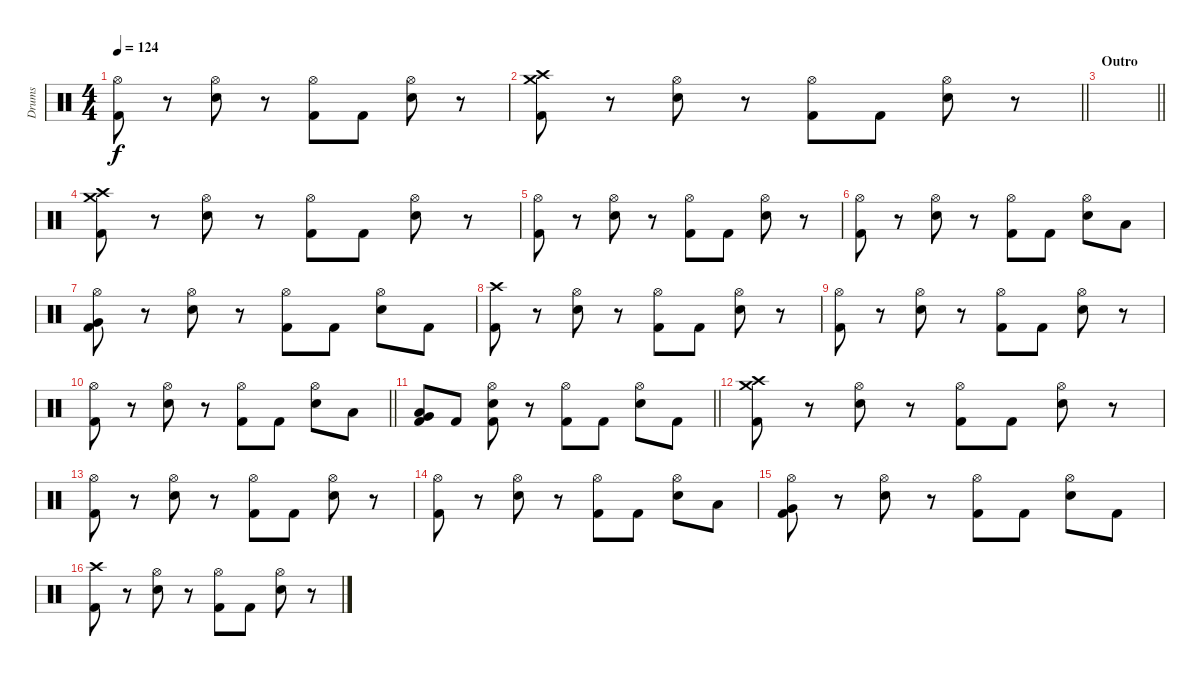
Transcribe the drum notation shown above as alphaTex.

\track ("Drums" "Drums") {instrument percussion}
\staff {score}
\articulation defaults
\ts (4 4)
\tempo 124
\clef neutral
\ks c
("Hi-Hat (open)" "Kick (hit) 2").8{dy f} r.8 ("Hi-Hat (open)" "Electric Snare (hit)").8 r.8 ("Hi-Hat (open)" "Kick (hit) 2").8 "Kick (hit) 2".8 ("Hi-Hat (open)" "Electric Snare (hit)").8 r.8 |
\barLineRight lightlight
("Crash medium (hit)" "Crash high (hit)" "Kick (hit) 2").8 r.8 ("Hi-Hat (open)" "Electric Snare (hit)").8 r.8 ("Hi-Hat (open)" "Kick (hit) 2").8 "Kick (hit) 2".8 ("Hi-Hat (open)" "Electric Snare (hit)").8 r.8 |
\section ("" "Outro")
\barLineRight lightlight
|
("Crash medium (hit)" "Crash high (hit)" "Kick (hit) 2").8 r.8 ("Hi-Hat (open)" "Electric Snare (hit)").8 r.8 ("Hi-Hat (open)" "Kick (hit) 2").8 "Kick (hit) 2".8 ("Hi-Hat (open)" "Electric Snare (hit)").8 r.8 |
("Hi-Hat (open)" "Kick (hit) 2").8 r.8 ("Hi-Hat (open)" "Electric Snare (hit)").8 r.8 ("Hi-Hat (open)" "Kick (hit) 2").8 "Kick (hit) 2".8 ("Hi-Hat (open)" "Electric Snare (hit)").8 r.8 |
("Hi-Hat (open)" "Kick (hit) 2").8 r.8 ("Hi-Hat (open)" "Electric Snare (hit)").8 r.8 ("Hi-Hat (open)" "Kick (hit) 2").8 "Kick (hit) 2".8 ("Hi-Hat (open)" "Electric Snare (hit)").8 "Low Tom (hit)".8 |
("Hi-Hat (open)" "Very Low Tom (hit)" "Kick (hit) 2").8 r.8 ("Hi-Hat (open)" "Electric Snare (hit)").8 r.8 ("Hi-Hat (open)" "Kick (hit) 2").8 "Kick (hit) 2".8 ("Hi-Hat (open)" "Electric Snare (hit)").8 "Kick (hit) 2".8 |
("Crash high (hit)" "Kick (hit) 2").8 r.8 ("Hi-Hat (open)" "Electric Snare (hit)").8 r.8 ("Hi-Hat (open)" "Kick (hit) 2").8 "Kick (hit) 2".8 ("Hi-Hat (open)" "Electric Snare (hit)").8 r.8 |
("Hi-Hat (open)" "Kick (hit) 2").8 r.8 ("Hi-Hat (open)" "Electric Snare (hit)").8 r.8 ("Hi-Hat (open)" "Kick (hit) 2").8 "Kick (hit) 2".8 ("Hi-Hat (open)" "Electric Snare (hit)").8 r.8 |
\barLineRight lightlight
("Hi-Hat (open)" "Kick (hit) 2").8 r.8 ("Hi-Hat (open)" "Electric Snare (hit)").8 r.8 ("Hi-Hat (open)" "Kick (hit) 2").8 "Kick (hit) 2".8 ("Hi-Hat (open)" "Electric Snare (hit)").8 "Low Tom (hit)".8 |
\barLineRight lightlight
("Very Low Tom (hit)" "Low Tom (hit)" "Kick (hit) 2").8 "Kick (hit) 2".8 ("Hi-Hat (open)" "Electric Snare (hit)" "Kick (hit) 2").8 r.8 ("Hi-Hat (open)" "Kick (hit) 2").8 "Kick (hit) 2".8 ("Hi-Hat (open)" "Electric Snare (hit)").8 "Kick (hit) 2".8 |
("Crash medium (hit)" "Crash high (hit)" "Kick (hit) 2").8 r.8 ("Hi-Hat (open)" "Electric Snare (hit)").8 r.8 ("Hi-Hat (open)" "Kick (hit) 2").8 "Kick (hit) 2".8 ("Hi-Hat (open)" "Electric Snare (hit)").8 r.8 |
("Hi-Hat (open)" "Kick (hit) 2").8 r.8 ("Hi-Hat (open)" "Electric Snare (hit)").8 r.8 ("Hi-Hat (open)" "Kick (hit) 2").8 "Kick (hit) 2".8 ("Hi-Hat (open)" "Electric Snare (hit)").8 r.8 |
("Hi-Hat (open)" "Kick (hit) 2").8 r.8 ("Hi-Hat (open)" "Electric Snare (hit)").8 r.8 ("Hi-Hat (open)" "Kick (hit) 2").8 "Kick (hit) 2".8 ("Hi-Hat (open)" "Electric Snare (hit)").8 "Low Tom (hit)".8 |
("Hi-Hat (open)" "Very Low Tom (hit)" "Kick (hit) 2").8 r.8 ("Hi-Hat (open)" "Electric Snare (hit)").8 r.8 ("Hi-Hat (open)" "Kick (hit) 2").8 "Kick (hit) 2".8 ("Hi-Hat (open)" "Electric Snare (hit)").8 "Kick (hit) 2".8 |
("Crash high (hit)" "Kick (hit) 2").8 r.8 ("Hi-Hat (open)" "Electric Snare (hit)").8 r.8 ("Hi-Hat (open)" "Kick (hit) 2").8 "Kick (hit) 2".8 ("Hi-Hat (open)" "Electric Snare (hit)").8 r.8
